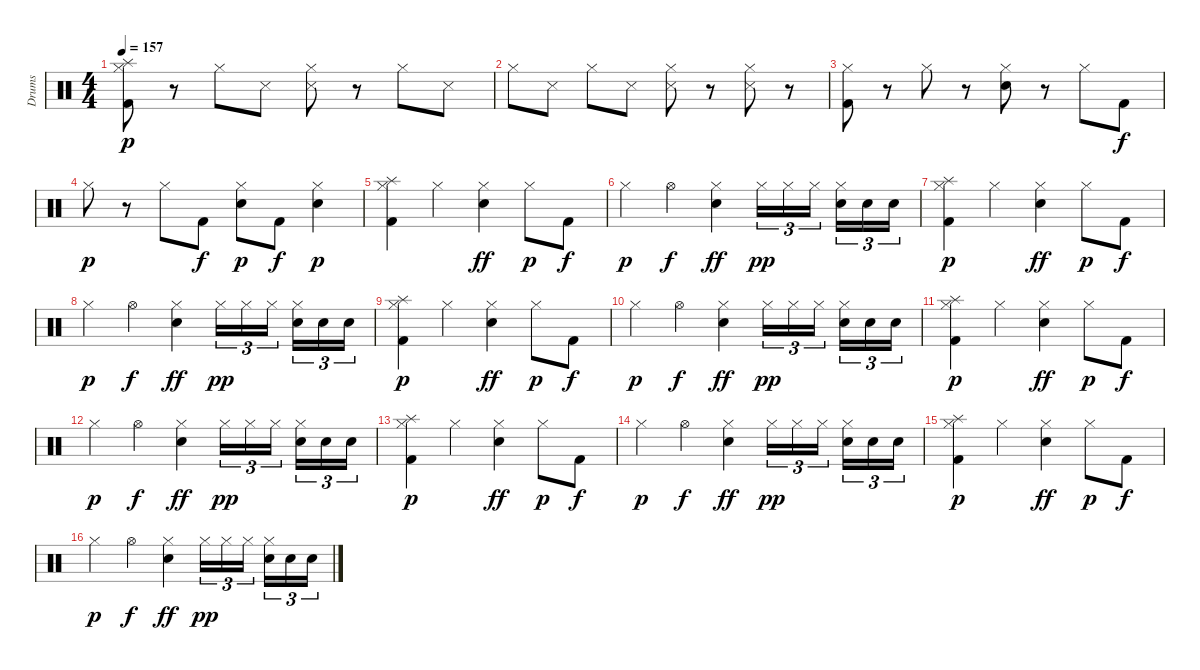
\track ("Drums" "Drums") {instrument percussion}
\staff {score}
\articulation defaults
\ts (4 4)
\tempo 157
\clef neutral
\ks c
("Hi-Hat (closed)" "Splash (hit)" "Kick (hit) 2").8{dy p} r.8 "Hi-Hat (closed)".8 "Snare (side stick) 3".8 ("Hi-Hat (closed)" "Snare (side stick) 3").8 r.8 "Hi-Hat (closed)".8 "Snare (side stick) 3".8 |
"Hi-Hat (closed)".8 "Snare (side stick) 3".8 "Hi-Hat (closed)".8 "Snare (side stick) 3".8 ("Hi-Hat (closed)" "Snare (side stick) 3").8 r.8 ("Hi-Hat (closed)" "Snare (side stick) 3").8 r.8 |
("Hi-Hat (closed)" "Kick (hit) 2").8 r.8 "Hi-Hat (closed)".8 r.8 ("Hi-Hat (closed)" "Electric Snare (hit)").8 r.8 "Hi-Hat (closed)".8 "Kick (hit) 2".8{dy f} |
"Hi-Hat (closed)".8{dy p} r.8 "Hi-Hat (closed)".8 "Kick (hit) 2".8{dy f} ("Hi-Hat (closed)" "Electric Snare (hit)").8{dy p} "Kick (hit) 2".8{dy f} ("Hi-Hat (closed)" "Electric Snare (hit)").4{dy p} |
("Hi-Hat (closed)" "Splash (hit)" "Kick (hit) 2").4 "Hi-Hat (closed)".4 ("Hi-Hat (closed)" "Electric Snare (hit)").4{dy ff} "Hi-Hat (closed)".8{dy p} "Kick (hit) 2".8{dy f} |
"Hi-Hat (closed)".4{dy p} "Hi-Hat (open)".4{dy f} ("Hi-Hat (closed)" "Electric Snare (hit)").4{dy ff} "Hi-Hat (closed)".16{tu (3 2) dy pp} "Hi-Hat (closed)".16{tu (3 2)} "Hi-Hat (closed)".16{tu (3 2)} ("Hi-Hat (closed)" "Electric Snare (hit)").16{tu (3 2)} "Electric Snare (hit)".16{tu (3 2)} "Electric Snare (hit)".16{tu (3 2)} |
("Hi-Hat (closed)" "Splash (hit)" "Kick (hit) 2").4{dy p} "Hi-Hat (closed)".4 ("Hi-Hat (closed)" "Electric Snare (hit)").4{dy ff} "Hi-Hat (closed)".8{dy p} "Kick (hit) 2".8{dy f} |
"Hi-Hat (closed)".4{dy p} "Hi-Hat (open)".4{dy f} ("Hi-Hat (closed)" "Electric Snare (hit)").4{dy ff} "Hi-Hat (closed)".16{tu (3 2) dy pp} "Hi-Hat (closed)".16{tu (3 2)} "Hi-Hat (closed)".16{tu (3 2)} ("Hi-Hat (closed)" "Electric Snare (hit)").16{tu (3 2)} "Electric Snare (hit)".16{tu (3 2)} "Electric Snare (hit)".16{tu (3 2)} |
("Hi-Hat (closed)" "Splash (hit)" "Kick (hit) 2").4{dy p} "Hi-Hat (closed)".4 ("Hi-Hat (closed)" "Electric Snare (hit)").4{dy ff} "Hi-Hat (closed)".8{dy p} "Kick (hit) 2".8{dy f} |
"Hi-Hat (closed)".4{dy p} "Hi-Hat (open)".4{dy f} ("Hi-Hat (closed)" "Electric Snare (hit)").4{dy ff} "Hi-Hat (closed)".16{tu (3 2) dy pp} "Hi-Hat (closed)".16{tu (3 2)} "Hi-Hat (closed)".16{tu (3 2)} ("Hi-Hat (closed)" "Electric Snare (hit)").16{tu (3 2)} "Electric Snare (hit)".16{tu (3 2)} "Electric Snare (hit)".16{tu (3 2)} |
("Hi-Hat (closed)" "Splash (hit)" "Kick (hit) 2").4{dy p} "Hi-Hat (closed)".4 ("Hi-Hat (closed)" "Electric Snare (hit)").4{dy ff} "Hi-Hat (closed)".8{dy p} "Kick (hit) 2".8{dy f} |
"Hi-Hat (closed)".4{dy p} "Hi-Hat (open)".4{dy f} ("Hi-Hat (closed)" "Electric Snare (hit)").4{dy ff} "Hi-Hat (closed)".16{tu (3 2) dy pp} "Hi-Hat (closed)".16{tu (3 2)} "Hi-Hat (closed)".16{tu (3 2)} ("Hi-Hat (closed)" "Electric Snare (hit)").16{tu (3 2)} "Electric Snare (hit)".16{tu (3 2)} "Electric Snare (hit)".16{tu (3 2)} |
("Hi-Hat (closed)" "Splash (hit)" "Kick (hit) 2").4{dy p} "Hi-Hat (closed)".4 ("Hi-Hat (closed)" "Electric Snare (hit)").4{dy ff} "Hi-Hat (closed)".8{dy p} "Kick (hit) 2".8{dy f} |
"Hi-Hat (closed)".4{dy p} "Hi-Hat (open)".4{dy f} ("Hi-Hat (closed)" "Electric Snare (hit)").4{dy ff} "Hi-Hat (closed)".16{tu (3 2) dy pp} "Hi-Hat (closed)".16{tu (3 2)} "Hi-Hat (closed)".16{tu (3 2)} ("Hi-Hat (closed)" "Electric Snare (hit)").16{tu (3 2)} "Electric Snare (hit)".16{tu (3 2)} "Electric Snare (hit)".16{tu (3 2)} |
("Hi-Hat (closed)" "Splash (hit)" "Kick (hit) 2").4{dy p} "Hi-Hat (closed)".4 ("Hi-Hat (closed)" "Electric Snare (hit)").4{dy ff} "Hi-Hat (closed)".8{dy p} "Kick (hit) 2".8{dy f} |
"Hi-Hat (closed)".4{dy p} "Hi-Hat (open)".4{dy f} ("Hi-Hat (closed)" "Electric Snare (hit)").4{dy ff} "Hi-Hat (closed)".16{tu (3 2) dy pp} "Hi-Hat (closed)".16{tu (3 2)} "Hi-Hat (closed)".16{tu (3 2)} ("Hi-Hat (closed)" "Electric Snare (hit)").16{tu (3 2)} "Electric Snare (hit)".16{tu (3 2)} "Electric Snare (hit)".16{tu (3 2)}
